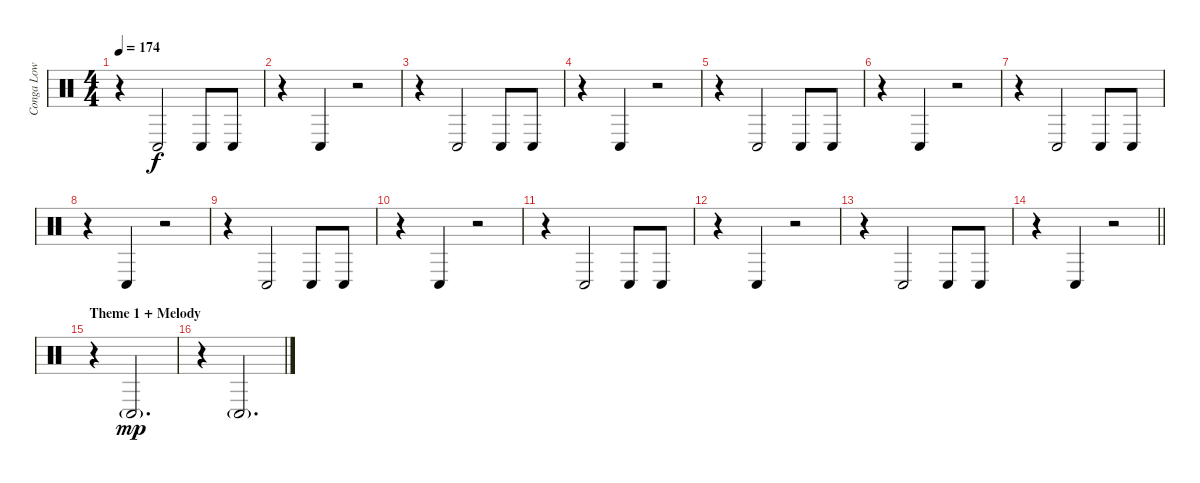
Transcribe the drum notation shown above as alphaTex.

\track ("Conga Low" "Conga Low") {instrument percussion}
\staff {score}
\articulation defaults
\ts (4 4)
\tempo 174
\clef neutral
\ks c
r.4{dy f} "Conga low (hit)".2 "Conga low (hit)".8 "Conga low (hit)".8 |
r.4 "Conga low (hit)".4 r.2 |
r.4 "Conga low (hit)".2 "Conga low (hit)".8 "Conga low (hit)".8 |
r.4 "Conga low (hit)".4 r.2 |
r.4 "Conga low (hit)".2 "Conga low (hit)".8 "Conga low (hit)".8 |
r.4 "Conga low (hit)".4 r.2 |
r.4 "Conga low (hit)".2 "Conga low (hit)".8 "Conga low (hit)".8 |
r.4 "Conga low (hit)".4 r.2 |
r.4 "Conga low (hit)".2 "Conga low (hit)".8 "Conga low (hit)".8 |
r.4 "Conga low (hit)".4 r.2 |
r.4 "Conga low (hit)".2 "Conga low (hit)".8 "Conga low (hit)".8 |
r.4 "Conga low (hit)".4 r.2 |
r.4 "Conga low (hit)".2 "Conga low (hit)".8 "Conga low (hit)".8 |
\barLineRight lightlight
r.4 "Conga low (hit)".4 r.2 |
\section ("" "Theme 1 + Melody")
r.4 "Conga low (hit)"{g}.2{d dy mp} |
r.4 "Conga low (hit)"{g}.2{d}
